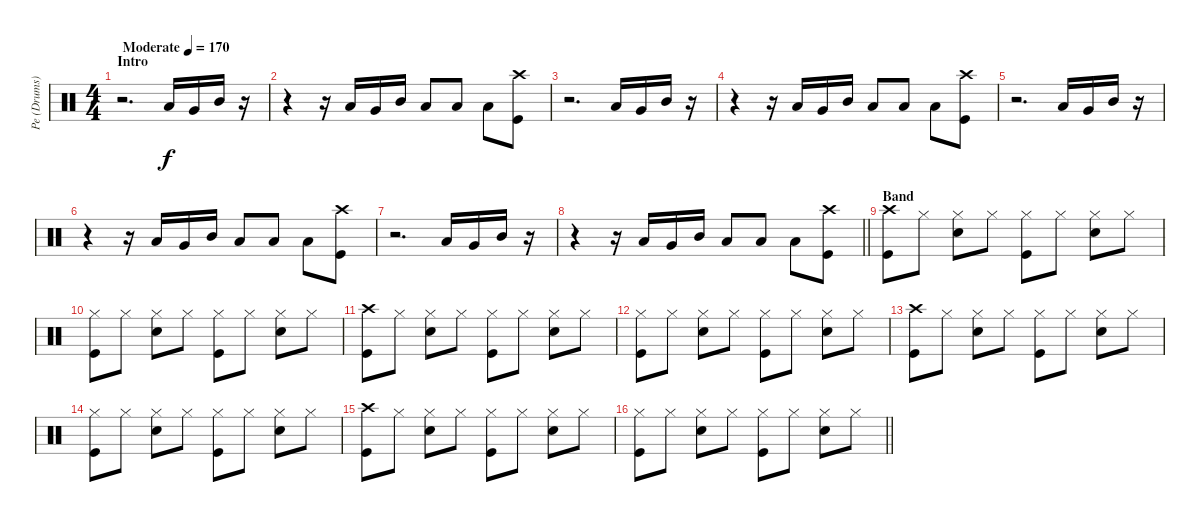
\track ("Pe (Drums)" "Pe (Drums)") {instrument percussion}
\staff {score}
\articulation defaults
\ts (4 4)
\section ("" "Intro")
\tempo (170 "Moderate")
\clef neutral
\ks c
r.2{d dy f} "Low Floor Tom (hit)".16 "Very Low Tom (hit)".16 "Mid Tom (hit)".16 r.16 |
r.4 r.16 "Low Floor Tom (hit)".16 "Very Low Tom (hit)".16 "Mid Tom (hit)".16 "Low Tom (hit)".8 "Low Tom (hit)".8 "Low Tom (hit)".8 ("Crash high (hit)" "Kick (hit)").8 |
r.2{d} "Low Floor Tom (hit)".16 "Very Low Tom (hit)".16 "Mid Tom (hit)".16 r.16 |
r.4 r.16 "Low Floor Tom (hit)".16 "Very Low Tom (hit)".16 "Mid Tom (hit)".16 "Low Tom (hit)".8 "Low Tom (hit)".8 "Low Tom (hit)".8 ("Crash high (hit)" "Kick (hit)").8 |
r.2{d} "Low Floor Tom (hit)".16 "Very Low Tom (hit)".16 "Mid Tom (hit)".16 r.16 |
r.4 r.16 "Low Floor Tom (hit)".16 "Very Low Tom (hit)".16 "Mid Tom (hit)".16 "Low Tom (hit)".8 "Low Tom (hit)".8 "Low Tom (hit)".8 ("Crash high (hit)" "Kick (hit)").8 |
r.2{d} "Low Floor Tom (hit)".16 "Very Low Tom (hit)".16 "Mid Tom (hit)".16 r.16 |
\barLineRight lightlight
r.4 r.16 "Low Floor Tom (hit)".16 "Very Low Tom (hit)".16 "Mid Tom (hit)".16 "Low Tom (hit)".8 "Low Tom (hit)".8 "Low Tom (hit)".8 ("Crash high (hit)" "Kick (hit)").8 |
\section ("" "Band")
("Crash high (hit)" "Kick (hit)").8 "Hi-Hat (closed)".8 ("Hi-Hat (closed)" "Snare (hit) 2").8 "Hi-Hat (closed)".8 ("Hi-Hat (closed)" "Kick (hit)").8 "Hi-Hat (closed)".8 ("Hi-Hat (closed)" "Snare (hit) 2").8 "Hi-Hat (closed)".8 |
("Hi-Hat (closed)" "Kick (hit)").8 "Hi-Hat (closed)".8 ("Hi-Hat (closed)" "Snare (hit) 2").8 "Hi-Hat (closed)".8 ("Hi-Hat (closed)" "Kick (hit)").8 "Hi-Hat (closed)".8 ("Hi-Hat (closed)" "Snare (hit) 2").8 "Hi-Hat (closed)".8 |
("Crash high (hit)" "Kick (hit)").8 "Hi-Hat (closed)".8 ("Hi-Hat (closed)" "Snare (hit) 2").8 "Hi-Hat (closed)".8 ("Hi-Hat (closed)" "Kick (hit)").8 "Hi-Hat (closed)".8 ("Hi-Hat (closed)" "Snare (hit) 2").8 "Hi-Hat (closed)".8 |
("Hi-Hat (closed)" "Kick (hit)").8 "Hi-Hat (closed)".8 ("Hi-Hat (closed)" "Snare (hit) 2").8 "Hi-Hat (closed)".8 ("Hi-Hat (closed)" "Kick (hit)").8 "Hi-Hat (closed)".8 ("Hi-Hat (closed)" "Snare (hit) 2").8 "Hi-Hat (closed)".8 |
("Crash high (hit)" "Kick (hit)").8 "Hi-Hat (closed)".8 ("Hi-Hat (closed)" "Snare (hit) 2").8 "Hi-Hat (closed)".8 ("Hi-Hat (closed)" "Kick (hit)").8 "Hi-Hat (closed)".8 ("Hi-Hat (closed)" "Snare (hit) 2").8 "Hi-Hat (closed)".8 |
("Hi-Hat (closed)" "Kick (hit)").8 "Hi-Hat (closed)".8 ("Hi-Hat (closed)" "Snare (hit) 2").8 "Hi-Hat (closed)".8 ("Hi-Hat (closed)" "Kick (hit)").8 "Hi-Hat (closed)".8 ("Hi-Hat (closed)" "Snare (hit) 2").8 "Hi-Hat (closed)".8 |
("Crash high (hit)" "Kick (hit)").8 "Hi-Hat (closed)".8 ("Hi-Hat (closed)" "Snare (hit) 2").8 "Hi-Hat (closed)".8 ("Hi-Hat (closed)" "Kick (hit)").8 "Hi-Hat (closed)".8 ("Hi-Hat (closed)" "Snare (hit) 2").8 "Hi-Hat (closed)".8 |
\barLineRight lightlight
("Hi-Hat (closed)" "Kick (hit)").8 "Hi-Hat (closed)".8 ("Hi-Hat (closed)" "Snare (hit) 2").8 "Hi-Hat (closed)".8 ("Hi-Hat (closed)" "Kick (hit)").8 "Hi-Hat (closed)".8 ("Hi-Hat (closed)" "Snare (hit) 2").8 "Hi-Hat (closed)".8
